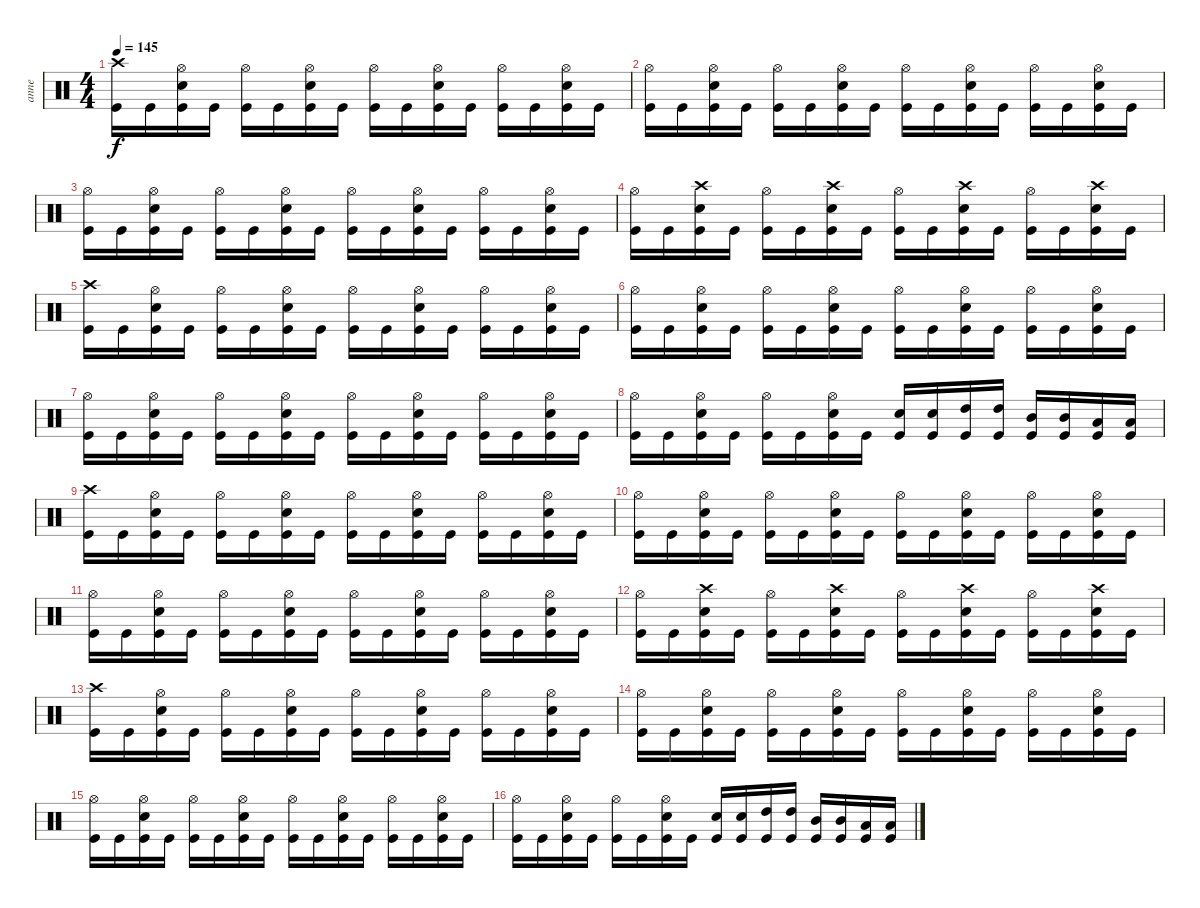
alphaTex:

\track ("anne" "anne") {instrument percussion}
\staff {score}
\articulation defaults
\ts (4 4)
\tempo 145
\clef neutral
\ks c
("Crash high (hit)" "Kick (hit)").16{dy f} "Kick (hit)".16 ("Hi-Hat (open)" "Snare (hit) 2" "Kick (hit)").16 "Kick (hit)".16 ("Hi-Hat (open)" "Kick (hit)").16 "Kick (hit)".16 ("Hi-Hat (open)" "Snare (hit) 2" "Kick (hit)").16 "Kick (hit)".16 ("Hi-Hat (open)" "Kick (hit)").16 "Kick (hit)".16 ("Hi-Hat (open)" "Snare (hit) 2" "Kick (hit)").16 "Kick (hit)".16 ("Hi-Hat (open)" "Kick (hit)").16 "Kick (hit)".16 ("Hi-Hat (open)" "Snare (hit) 2" "Kick (hit)").16 "Kick (hit)".16 |
("Hi-Hat (open)" "Kick (hit)").16 "Kick (hit)".16 ("Hi-Hat (open)" "Snare (hit) 2" "Kick (hit)").16 "Kick (hit)".16 ("Hi-Hat (open)" "Kick (hit)").16 "Kick (hit)".16 ("Hi-Hat (open)" "Snare (hit) 2" "Kick (hit)").16 "Kick (hit)".16 ("Hi-Hat (open)" "Kick (hit)").16 "Kick (hit)".16 ("Hi-Hat (open)" "Snare (hit) 2" "Kick (hit)").16 "Kick (hit)".16 ("Hi-Hat (open)" "Kick (hit)").16 "Kick (hit)".16 ("Hi-Hat (open)" "Snare (hit) 2" "Kick (hit)").16 "Kick (hit)".16 |
("Hi-Hat (open)" "Kick (hit)").16 "Kick (hit)".16 ("Hi-Hat (open)" "Snare (hit) 2" "Kick (hit)").16 "Kick (hit)".16 ("Hi-Hat (open)" "Kick (hit)").16 "Kick (hit)".16 ("Hi-Hat (open)" "Snare (hit) 2" "Kick (hit)").16 "Kick (hit)".16 ("Hi-Hat (open)" "Kick (hit)").16 "Kick (hit)".16 ("Hi-Hat (open)" "Snare (hit) 2" "Kick (hit)").16 "Kick (hit)".16 ("Hi-Hat (open)" "Kick (hit)").16 "Kick (hit)".16 ("Hi-Hat (open)" "Snare (hit) 2" "Kick (hit)").16 "Kick (hit)".16 |
("Hi-Hat (open)" "Kick (hit)").16 "Kick (hit)".16 ("Crash high (hit)" "Snare (hit) 2" "Kick (hit)").16 "Kick (hit)".16 ("Hi-Hat (open)" "Kick (hit)").16 "Kick (hit)".16 ("Crash high (hit)" "Snare (hit) 2" "Kick (hit)").16 "Kick (hit)".16 ("Hi-Hat (open)" "Kick (hit)").16 "Kick (hit)".16 ("Crash high (hit)" "Snare (hit) 2" "Kick (hit)").16 "Kick (hit)".16 ("Hi-Hat (open)" "Kick (hit)").16 "Kick (hit)".16 ("Crash high (hit)" "Snare (hit) 2" "Kick (hit)").16 "Kick (hit)".16 |
("Crash high (hit)" "Kick (hit)").16 "Kick (hit)".16 ("Hi-Hat (open)" "Snare (hit) 2" "Kick (hit)").16 "Kick (hit)".16 ("Hi-Hat (open)" "Kick (hit)").16 "Kick (hit)".16 ("Hi-Hat (open)" "Snare (hit) 2" "Kick (hit)").16 "Kick (hit)".16 ("Hi-Hat (open)" "Kick (hit)").16 "Kick (hit)".16 ("Hi-Hat (open)" "Snare (hit) 2" "Kick (hit)").16 "Kick (hit)".16 ("Hi-Hat (open)" "Kick (hit)").16 "Kick (hit)".16 ("Hi-Hat (open)" "Snare (hit) 2" "Kick (hit)").16 "Kick (hit)".16 |
("Hi-Hat (open)" "Kick (hit)").16 "Kick (hit)".16 ("Hi-Hat (open)" "Snare (hit) 2" "Kick (hit)").16 "Kick (hit)".16 ("Hi-Hat (open)" "Kick (hit)").16 "Kick (hit)".16 ("Hi-Hat (open)" "Snare (hit) 2" "Kick (hit)").16 "Kick (hit)".16 ("Hi-Hat (open)" "Kick (hit)").16 "Kick (hit)".16 ("Hi-Hat (open)" "Snare (hit) 2" "Kick (hit)").16 "Kick (hit)".16 ("Hi-Hat (open)" "Kick (hit)").16 "Kick (hit)".16 ("Hi-Hat (open)" "Snare (hit) 2" "Kick (hit)").16 "Kick (hit)".16 |
("Hi-Hat (open)" "Kick (hit)").16 "Kick (hit)".16 ("Hi-Hat (open)" "Snare (hit) 2" "Kick (hit)").16 "Kick (hit)".16 ("Hi-Hat (open)" "Kick (hit)").16 "Kick (hit)".16 ("Hi-Hat (open)" "Snare (hit) 2" "Kick (hit)").16 "Kick (hit)".16 ("Hi-Hat (open)" "Kick (hit)").16 "Kick (hit)".16 ("Hi-Hat (open)" "Snare (hit) 2" "Kick (hit)").16 "Kick (hit)".16 ("Hi-Hat (open)" "Kick (hit)").16 "Kick (hit)".16 ("Hi-Hat (open)" "Snare (hit) 2" "Kick (hit)").16 "Kick (hit)".16 |
("Hi-Hat (open)" "Kick (hit)").16 "Kick (hit)".16 ("Hi-Hat (open)" "Snare (hit) 2" "Kick (hit)").16 "Kick (hit)".16 ("Hi-Hat (open)" "Kick (hit)").16 "Kick (hit)".16 ("Hi-Hat (open)" "Snare (hit) 2" "Kick (hit)").16 "Kick (hit)".16 ("Snare (hit) 2" "Kick (hit)").16 ("Snare (hit) 2" "Kick (hit)").16 ("High Tom (hit)" "Kick (hit)").16 ("High Tom (hit)" "Kick (hit)").16 ("Mid Tom (hit)" "Kick (hit)").16 ("Mid Tom (hit)" "Kick (hit)").16 ("Low Tom (hit)" "Kick (hit)").16 ("Low Tom (hit)" "Kick (hit)").16 |
("Crash high (hit)" "Kick (hit)").16 "Kick (hit)".16 ("Hi-Hat (open)" "Snare (hit) 2" "Kick (hit)").16 "Kick (hit)".16 ("Hi-Hat (open)" "Kick (hit)").16 "Kick (hit)".16 ("Hi-Hat (open)" "Snare (hit) 2" "Kick (hit)").16 "Kick (hit)".16 ("Hi-Hat (open)" "Kick (hit)").16 "Kick (hit)".16 ("Hi-Hat (open)" "Snare (hit) 2" "Kick (hit)").16 "Kick (hit)".16 ("Hi-Hat (open)" "Kick (hit)").16 "Kick (hit)".16 ("Hi-Hat (open)" "Snare (hit) 2" "Kick (hit)").16 "Kick (hit)".16 |
("Hi-Hat (open)" "Kick (hit)").16 "Kick (hit)".16 ("Hi-Hat (open)" "Snare (hit) 2" "Kick (hit)").16 "Kick (hit)".16 ("Hi-Hat (open)" "Kick (hit)").16 "Kick (hit)".16 ("Hi-Hat (open)" "Snare (hit) 2" "Kick (hit)").16 "Kick (hit)".16 ("Hi-Hat (open)" "Kick (hit)").16 "Kick (hit)".16 ("Hi-Hat (open)" "Snare (hit) 2" "Kick (hit)").16 "Kick (hit)".16 ("Hi-Hat (open)" "Kick (hit)").16 "Kick (hit)".16 ("Hi-Hat (open)" "Snare (hit) 2" "Kick (hit)").16 "Kick (hit)".16 |
("Hi-Hat (open)" "Kick (hit)").16 "Kick (hit)".16 ("Hi-Hat (open)" "Snare (hit) 2" "Kick (hit)").16 "Kick (hit)".16 ("Hi-Hat (open)" "Kick (hit)").16 "Kick (hit)".16 ("Hi-Hat (open)" "Snare (hit) 2" "Kick (hit)").16 "Kick (hit)".16 ("Hi-Hat (open)" "Kick (hit)").16 "Kick (hit)".16 ("Hi-Hat (open)" "Snare (hit) 2" "Kick (hit)").16 "Kick (hit)".16 ("Hi-Hat (open)" "Kick (hit)").16 "Kick (hit)".16 ("Hi-Hat (open)" "Snare (hit) 2" "Kick (hit)").16 "Kick (hit)".16 |
("Hi-Hat (open)" "Kick (hit)").16 "Kick (hit)".16 ("Crash high (hit)" "Snare (hit) 2" "Kick (hit)").16 "Kick (hit)".16 ("Hi-Hat (open)" "Kick (hit)").16 "Kick (hit)".16 ("Crash high (hit)" "Snare (hit) 2" "Kick (hit)").16 "Kick (hit)".16 ("Hi-Hat (open)" "Kick (hit)").16 "Kick (hit)".16 ("Crash high (hit)" "Snare (hit) 2" "Kick (hit)").16 "Kick (hit)".16 ("Hi-Hat (open)" "Kick (hit)").16 "Kick (hit)".16 ("Crash high (hit)" "Snare (hit) 2" "Kick (hit)").16 "Kick (hit)".16 |
("Crash high (hit)" "Kick (hit)").16 "Kick (hit)".16 ("Hi-Hat (open)" "Snare (hit) 2" "Kick (hit)").16 "Kick (hit)".16 ("Hi-Hat (open)" "Kick (hit)").16 "Kick (hit)".16 ("Hi-Hat (open)" "Snare (hit) 2" "Kick (hit)").16 "Kick (hit)".16 ("Hi-Hat (open)" "Kick (hit)").16 "Kick (hit)".16 ("Hi-Hat (open)" "Snare (hit) 2" "Kick (hit)").16 "Kick (hit)".16 ("Hi-Hat (open)" "Kick (hit)").16 "Kick (hit)".16 ("Hi-Hat (open)" "Snare (hit) 2" "Kick (hit)").16 "Kick (hit)".16 |
("Hi-Hat (open)" "Kick (hit)").16 "Kick (hit)".16 ("Hi-Hat (open)" "Snare (hit) 2" "Kick (hit)").16 "Kick (hit)".16 ("Hi-Hat (open)" "Kick (hit)").16 "Kick (hit)".16 ("Hi-Hat (open)" "Snare (hit) 2" "Kick (hit)").16 "Kick (hit)".16 ("Hi-Hat (open)" "Kick (hit)").16 "Kick (hit)".16 ("Hi-Hat (open)" "Snare (hit) 2" "Kick (hit)").16 "Kick (hit)".16 ("Hi-Hat (open)" "Kick (hit)").16 "Kick (hit)".16 ("Hi-Hat (open)" "Snare (hit) 2" "Kick (hit)").16 "Kick (hit)".16 |
("Hi-Hat (open)" "Kick (hit)").16 "Kick (hit)".16 ("Hi-Hat (open)" "Snare (hit) 2" "Kick (hit)").16 "Kick (hit)".16 ("Hi-Hat (open)" "Kick (hit)").16 "Kick (hit)".16 ("Hi-Hat (open)" "Snare (hit) 2" "Kick (hit)").16 "Kick (hit)".16 ("Hi-Hat (open)" "Kick (hit)").16 "Kick (hit)".16 ("Hi-Hat (open)" "Snare (hit) 2" "Kick (hit)").16 "Kick (hit)".16 ("Hi-Hat (open)" "Kick (hit)").16 "Kick (hit)".16 ("Hi-Hat (open)" "Snare (hit) 2" "Kick (hit)").16 "Kick (hit)".16 |
("Hi-Hat (open)" "Kick (hit)").16 "Kick (hit)".16 ("Hi-Hat (open)" "Snare (hit) 2" "Kick (hit)").16 "Kick (hit)".16 ("Hi-Hat (open)" "Kick (hit)").16 "Kick (hit)".16 ("Hi-Hat (open)" "Snare (hit) 2" "Kick (hit)").16 "Kick (hit)".16 ("Snare (hit) 2" "Kick (hit)").16 ("Snare (hit) 2" "Kick (hit)").16 ("High Tom (hit)" "Kick (hit)").16 ("High Tom (hit)" "Kick (hit)").16 ("Mid Tom (hit)" "Kick (hit)").16 ("Mid Tom (hit)" "Kick (hit)").16 ("Low Tom (hit)" "Kick (hit)").16 ("Low Tom (hit)" "Kick (hit)").16
